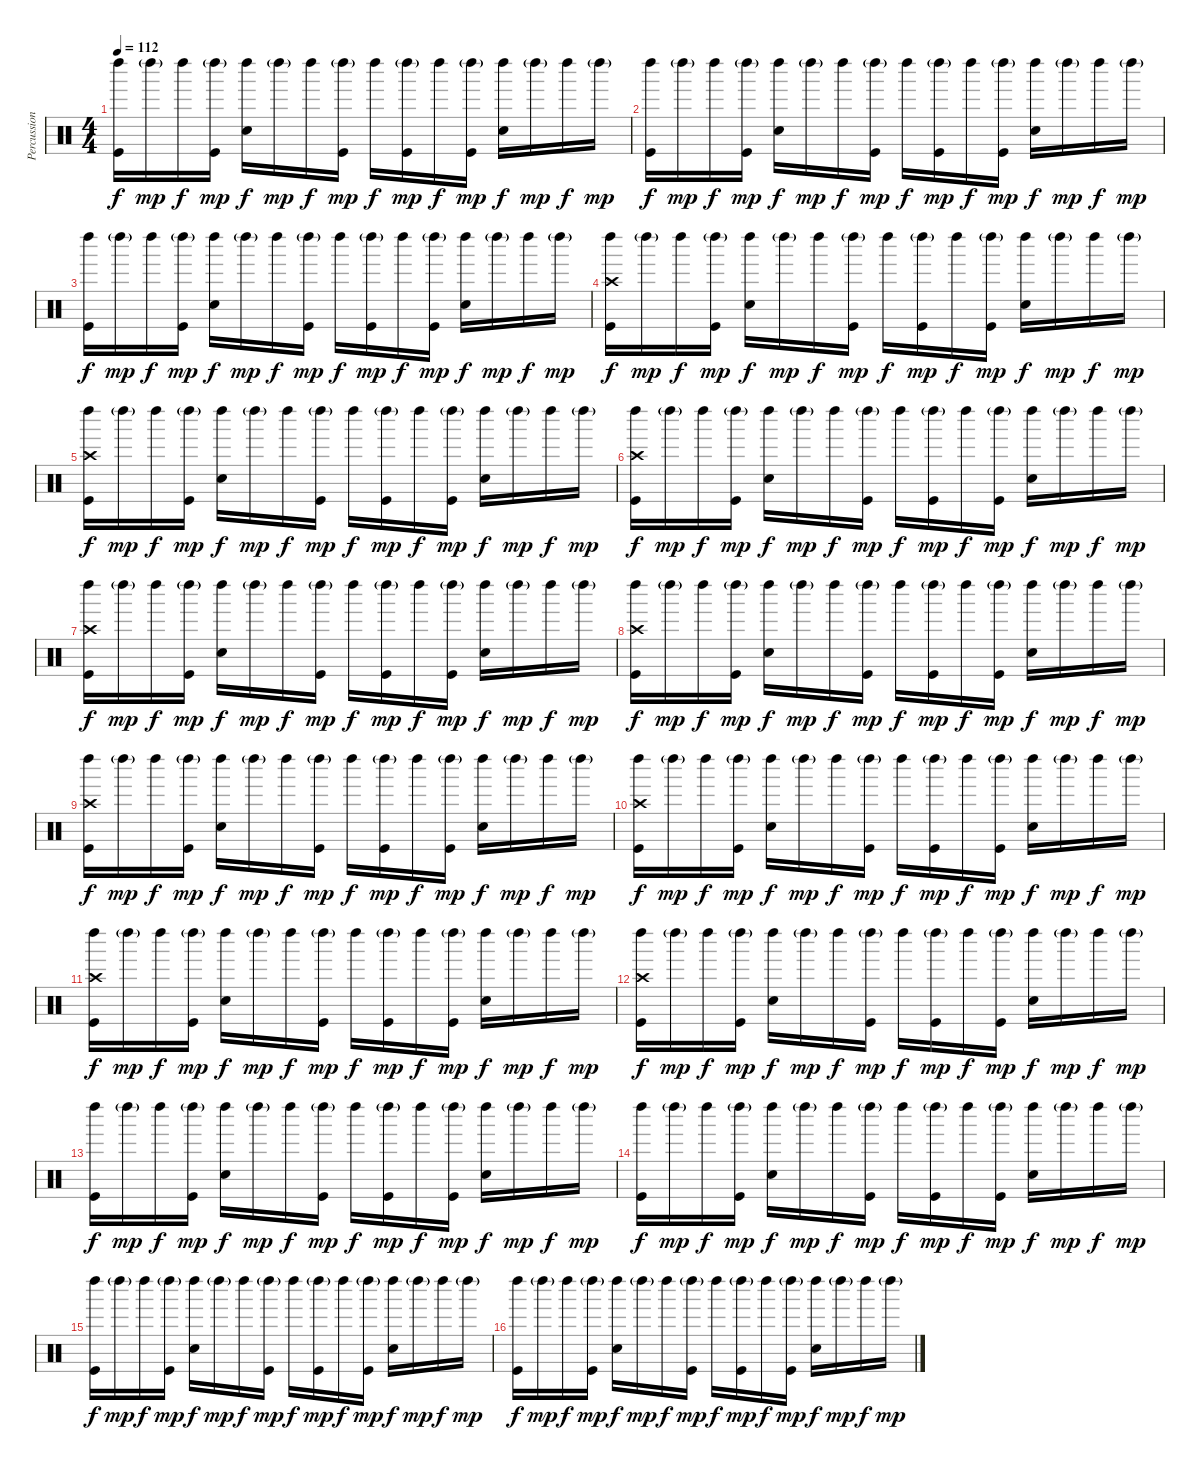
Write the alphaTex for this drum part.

\track ("Percussion" "Percussion") {instrument percussion}
\staff {score}
\articulation defaults
\ts (4 4)
\tempo 112
\clef neutral
\ks c
("Left Maraca (hit)" "Kick (hit)").16{dy f} "Left Maraca (hit)"{g}.16{dy mp} "Left Maraca (hit)".16{dy f} ("Left Maraca (hit)"{g} "Kick (hit)").16{dy mp} ("Left Maraca (hit)" "Snare (hit) 2").16{dy f} "Left Maraca (hit)"{g}.16{dy mp} "Left Maraca (hit)".16{dy f} ("Left Maraca (hit)"{g} "Kick (hit)").16{dy mp} "Left Maraca (hit)".16{dy f} ("Left Maraca (hit)"{g} "Kick (hit)").16{dy mp} "Left Maraca (hit)".16{dy f} ("Left Maraca (hit)"{g} "Kick (hit)").16{dy mp} ("Left Maraca (hit)" "Snare (hit) 2").16{dy f} "Left Maraca (hit)"{g}.16{dy mp} "Left Maraca (hit)".16{dy f} "Left Maraca (hit)"{g}.16{dy mp} |
("Left Maraca (hit)" "Kick (hit)").16{dy f} "Left Maraca (hit)"{g}.16{dy mp} "Left Maraca (hit)".16{dy f} ("Left Maraca (hit)"{g} "Kick (hit)").16{dy mp} ("Left Maraca (hit)" "Snare (hit) 2").16{dy f} "Left Maraca (hit)"{g}.16{dy mp} "Left Maraca (hit)".16{dy f} ("Left Maraca (hit)"{g} "Kick (hit)").16{dy mp} "Left Maraca (hit)".16{dy f} ("Left Maraca (hit)"{g} "Kick (hit)").16{dy mp} "Left Maraca (hit)".16{dy f} ("Left Maraca (hit)"{g} "Kick (hit)").16{dy mp} ("Left Maraca (hit)" "Snare (hit) 2").16{dy f} "Left Maraca (hit)"{g}.16{dy mp} "Left Maraca (hit)".16{dy f} "Left Maraca (hit)"{g}.16{dy mp} |
("Left Maraca (hit)" "Kick (hit)").16{dy f} "Left Maraca (hit)"{g}.16{dy mp} "Left Maraca (hit)".16{dy f} ("Left Maraca (hit)"{g} "Kick (hit)").16{dy mp} ("Left Maraca (hit)" "Snare (hit) 2").16{dy f} "Left Maraca (hit)"{g}.16{dy mp} "Left Maraca (hit)".16{dy f} ("Left Maraca (hit)"{g} "Kick (hit)").16{dy mp} "Left Maraca (hit)".16{dy f} ("Left Maraca (hit)"{g} "Kick (hit)").16{dy mp} "Left Maraca (hit)".16{dy f} ("Left Maraca (hit)"{g} "Kick (hit)").16{dy mp} ("Left Maraca (hit)" "Snare (hit) 2").16{dy f} "Left Maraca (hit)"{g}.16{dy mp} "Left Maraca (hit)".16{dy f} "Left Maraca (hit)"{g}.16{dy mp} |
("Crash high (hit)" "Left Maraca (hit)" "Kick (hit)").16{dy f} "Left Maraca (hit)"{g}.16{dy mp} "Left Maraca (hit)".16{dy f} ("Left Maraca (hit)"{g} "Kick (hit)").16{dy mp} ("Left Maraca (hit)" "Snare (hit) 2").16{dy f} "Left Maraca (hit)"{g}.16{dy mp} "Left Maraca (hit)".16{dy f} ("Left Maraca (hit)"{g} "Kick (hit)").16{dy mp} "Left Maraca (hit)".16{dy f} ("Left Maraca (hit)"{g} "Kick (hit)").16{dy mp} "Left Maraca (hit)".16{dy f} ("Left Maraca (hit)"{g} "Kick (hit)").16{dy mp} ("Left Maraca (hit)" "Snare (hit) 2").16{dy f} "Left Maraca (hit)"{g}.16{dy mp} "Left Maraca (hit)".16{dy f} "Left Maraca (hit)"{g}.16{dy mp} |
("Crash high (hit)" "Left Maraca (hit)" "Kick (hit)").16{dy f} "Left Maraca (hit)"{g}.16{dy mp} "Left Maraca (hit)".16{dy f} ("Left Maraca (hit)"{g} "Kick (hit)").16{dy mp} ("Left Maraca (hit)" "Snare (hit) 2").16{dy f} "Left Maraca (hit)"{g}.16{dy mp} "Left Maraca (hit)".16{dy f} ("Left Maraca (hit)"{g} "Kick (hit)").16{dy mp} "Left Maraca (hit)".16{dy f} ("Left Maraca (hit)"{g} "Kick (hit)").16{dy mp} "Left Maraca (hit)".16{dy f} ("Left Maraca (hit)"{g} "Kick (hit)").16{dy mp} ("Left Maraca (hit)" "Snare (hit) 2").16{dy f} "Left Maraca (hit)"{g}.16{dy mp} "Left Maraca (hit)".16{dy f} "Left Maraca (hit)"{g}.16{dy mp} |
("Crash high (hit)" "Left Maraca (hit)" "Kick (hit)").16{dy f} "Left Maraca (hit)"{g}.16{dy mp} "Left Maraca (hit)".16{dy f} ("Left Maraca (hit)"{g} "Kick (hit)").16{dy mp} ("Left Maraca (hit)" "Snare (hit) 2").16{dy f} "Left Maraca (hit)"{g}.16{dy mp} "Left Maraca (hit)".16{dy f} ("Left Maraca (hit)"{g} "Kick (hit)").16{dy mp} "Left Maraca (hit)".16{dy f} ("Left Maraca (hit)"{g} "Kick (hit)").16{dy mp} "Left Maraca (hit)".16{dy f} ("Left Maraca (hit)"{g} "Kick (hit)").16{dy mp} ("Left Maraca (hit)" "Snare (hit) 2").16{dy f} "Left Maraca (hit)"{g}.16{dy mp} "Left Maraca (hit)".16{dy f} "Left Maraca (hit)"{g}.16{dy mp} |
("Crash high (hit)" "Left Maraca (hit)" "Kick (hit)").16{dy f} "Left Maraca (hit)"{g}.16{dy mp} "Left Maraca (hit)".16{dy f} ("Left Maraca (hit)"{g} "Kick (hit)").16{dy mp} ("Left Maraca (hit)" "Snare (hit) 2").16{dy f} "Left Maraca (hit)"{g}.16{dy mp} "Left Maraca (hit)".16{dy f} ("Left Maraca (hit)"{g} "Kick (hit)").16{dy mp} "Left Maraca (hit)".16{dy f} ("Left Maraca (hit)"{g} "Kick (hit)").16{dy mp} "Left Maraca (hit)".16{dy f} ("Left Maraca (hit)"{g} "Kick (hit)").16{dy mp} ("Left Maraca (hit)" "Snare (hit) 2").16{dy f} "Left Maraca (hit)"{g}.16{dy mp} "Left Maraca (hit)".16{dy f} "Left Maraca (hit)"{g}.16{dy mp} |
("Crash high (hit)" "Left Maraca (hit)" "Kick (hit)").16{dy f} "Left Maraca (hit)"{g}.16{dy mp} "Left Maraca (hit)".16{dy f} ("Left Maraca (hit)"{g} "Kick (hit)").16{dy mp} ("Left Maraca (hit)" "Snare (hit) 2").16{dy f} "Left Maraca (hit)"{g}.16{dy mp} "Left Maraca (hit)".16{dy f} ("Left Maraca (hit)"{g} "Kick (hit)").16{dy mp} "Left Maraca (hit)".16{dy f} ("Left Maraca (hit)"{g} "Kick (hit)").16{dy mp} "Left Maraca (hit)".16{dy f} ("Left Maraca (hit)"{g} "Kick (hit)").16{dy mp} ("Left Maraca (hit)" "Snare (hit) 2").16{dy f} "Left Maraca (hit)"{g}.16{dy mp} "Left Maraca (hit)".16{dy f} "Left Maraca (hit)"{g}.16{dy mp} |
("Crash high (hit)" "Left Maraca (hit)" "Kick (hit)").16{dy f} "Left Maraca (hit)"{g}.16{dy mp} "Left Maraca (hit)".16{dy f} ("Left Maraca (hit)"{g} "Kick (hit)").16{dy mp} ("Left Maraca (hit)" "Snare (hit) 2").16{dy f} "Left Maraca (hit)"{g}.16{dy mp} "Left Maraca (hit)".16{dy f} ("Left Maraca (hit)"{g} "Kick (hit)").16{dy mp} "Left Maraca (hit)".16{dy f} ("Left Maraca (hit)"{g} "Kick (hit)").16{dy mp} "Left Maraca (hit)".16{dy f} ("Left Maraca (hit)"{g} "Kick (hit)").16{dy mp} ("Left Maraca (hit)" "Snare (hit) 2").16{dy f} "Left Maraca (hit)"{g}.16{dy mp} "Left Maraca (hit)".16{dy f} "Left Maraca (hit)"{g}.16{dy mp} |
("Crash high (hit)" "Left Maraca (hit)" "Kick (hit)").16{dy f} "Left Maraca (hit)"{g}.16{dy mp} "Left Maraca (hit)".16{dy f} ("Left Maraca (hit)"{g} "Kick (hit)").16{dy mp} ("Left Maraca (hit)" "Snare (hit) 2").16{dy f} "Left Maraca (hit)"{g}.16{dy mp} "Left Maraca (hit)".16{dy f} ("Left Maraca (hit)"{g} "Kick (hit)").16{dy mp} "Left Maraca (hit)".16{dy f} ("Left Maraca (hit)"{g} "Kick (hit)").16{dy mp} "Left Maraca (hit)".16{dy f} ("Left Maraca (hit)"{g} "Kick (hit)").16{dy mp} ("Left Maraca (hit)" "Snare (hit) 2").16{dy f} "Left Maraca (hit)"{g}.16{dy mp} "Left Maraca (hit)".16{dy f} "Left Maraca (hit)"{g}.16{dy mp} |
("Crash high (hit)" "Left Maraca (hit)" "Kick (hit)").16{dy f} "Left Maraca (hit)"{g}.16{dy mp} "Left Maraca (hit)".16{dy f} ("Left Maraca (hit)"{g} "Kick (hit)").16{dy mp} ("Left Maraca (hit)" "Snare (hit) 2").16{dy f} "Left Maraca (hit)"{g}.16{dy mp} "Left Maraca (hit)".16{dy f} ("Left Maraca (hit)"{g} "Kick (hit)").16{dy mp} "Left Maraca (hit)".16{dy f} ("Left Maraca (hit)"{g} "Kick (hit)").16{dy mp} "Left Maraca (hit)".16{dy f} ("Left Maraca (hit)"{g} "Kick (hit)").16{dy mp} ("Left Maraca (hit)" "Snare (hit) 2").16{dy f} "Left Maraca (hit)"{g}.16{dy mp} "Left Maraca (hit)".16{dy f} "Left Maraca (hit)"{g}.16{dy mp} |
("Crash high (hit)" "Left Maraca (hit)" "Kick (hit)").16{dy f} "Left Maraca (hit)"{g}.16{dy mp} "Left Maraca (hit)".16{dy f} ("Left Maraca (hit)"{g} "Kick (hit)").16{dy mp} ("Left Maraca (hit)" "Snare (hit) 2").16{dy f} "Left Maraca (hit)"{g}.16{dy mp} "Left Maraca (hit)".16{dy f} ("Left Maraca (hit)"{g} "Kick (hit)").16{dy mp} "Left Maraca (hit)".16{dy f} ("Left Maraca (hit)"{g} "Kick (hit)").16{dy mp} "Left Maraca (hit)".16{dy f} ("Left Maraca (hit)"{g} "Kick (hit)").16{dy mp} ("Left Maraca (hit)" "Snare (hit) 2").16{dy f} "Left Maraca (hit)"{g}.16{dy mp} "Left Maraca (hit)".16{dy f} "Left Maraca (hit)"{g}.16{dy mp} |
("Left Maraca (hit)" "Kick (hit)").16{dy f} "Left Maraca (hit)"{g}.16{dy mp} "Left Maraca (hit)".16{dy f} ("Left Maraca (hit)"{g} "Kick (hit)").16{dy mp} ("Left Maraca (hit)" "Snare (hit) 2").16{dy f} "Left Maraca (hit)"{g}.16{dy mp} "Left Maraca (hit)".16{dy f} ("Left Maraca (hit)"{g} "Kick (hit)").16{dy mp} "Left Maraca (hit)".16{dy f} ("Left Maraca (hit)"{g} "Kick (hit)").16{dy mp} "Left Maraca (hit)".16{dy f} ("Left Maraca (hit)"{g} "Kick (hit)").16{dy mp} ("Left Maraca (hit)" "Snare (hit) 2").16{dy f} "Left Maraca (hit)"{g}.16{dy mp} "Left Maraca (hit)".16{dy f} "Left Maraca (hit)"{g}.16{dy mp} |
("Left Maraca (hit)" "Kick (hit)").16{dy f} "Left Maraca (hit)"{g}.16{dy mp} "Left Maraca (hit)".16{dy f} ("Left Maraca (hit)"{g} "Kick (hit)").16{dy mp} ("Left Maraca (hit)" "Snare (hit) 2").16{dy f} "Left Maraca (hit)"{g}.16{dy mp} "Left Maraca (hit)".16{dy f} ("Left Maraca (hit)"{g} "Kick (hit)").16{dy mp} "Left Maraca (hit)".16{dy f} ("Left Maraca (hit)"{g} "Kick (hit)").16{dy mp} "Left Maraca (hit)".16{dy f} ("Left Maraca (hit)"{g} "Kick (hit)").16{dy mp} ("Left Maraca (hit)" "Snare (hit) 2").16{dy f} "Left Maraca (hit)"{g}.16{dy mp} "Left Maraca (hit)".16{dy f} "Left Maraca (hit)"{g}.16{dy mp} |
("Left Maraca (hit)" "Kick (hit)").16{dy f} "Left Maraca (hit)"{g}.16{dy mp} "Left Maraca (hit)".16{dy f} ("Left Maraca (hit)"{g} "Kick (hit)").16{dy mp} ("Left Maraca (hit)" "Snare (hit) 2").16{dy f} "Left Maraca (hit)"{g}.16{dy mp} "Left Maraca (hit)".16{dy f} ("Left Maraca (hit)"{g} "Kick (hit)").16{dy mp} "Left Maraca (hit)".16{dy f} ("Left Maraca (hit)"{g} "Kick (hit)").16{dy mp} "Left Maraca (hit)".16{dy f} ("Left Maraca (hit)"{g} "Kick (hit)").16{dy mp} ("Left Maraca (hit)" "Snare (hit) 2").16{dy f} "Left Maraca (hit)"{g}.16{dy mp} "Left Maraca (hit)".16{dy f} "Left Maraca (hit)"{g}.16{dy mp} |
("Left Maraca (hit)" "Kick (hit)").16{dy f} "Left Maraca (hit)"{g}.16{dy mp} "Left Maraca (hit)".16{dy f} ("Left Maraca (hit)"{g} "Kick (hit)").16{dy mp} ("Left Maraca (hit)" "Snare (hit) 2").16{dy f} "Left Maraca (hit)"{g}.16{dy mp} "Left Maraca (hit)".16{dy f} ("Left Maraca (hit)"{g} "Kick (hit)").16{dy mp} "Left Maraca (hit)".16{dy f} ("Left Maraca (hit)"{g} "Kick (hit)").16{dy mp} "Left Maraca (hit)".16{dy f} ("Left Maraca (hit)"{g} "Kick (hit)").16{dy mp} ("Left Maraca (hit)" "Snare (hit) 2").16{dy f} "Left Maraca (hit)"{g}.16{dy mp} "Left Maraca (hit)".16{dy f} "Left Maraca (hit)"{g}.16{dy mp}
